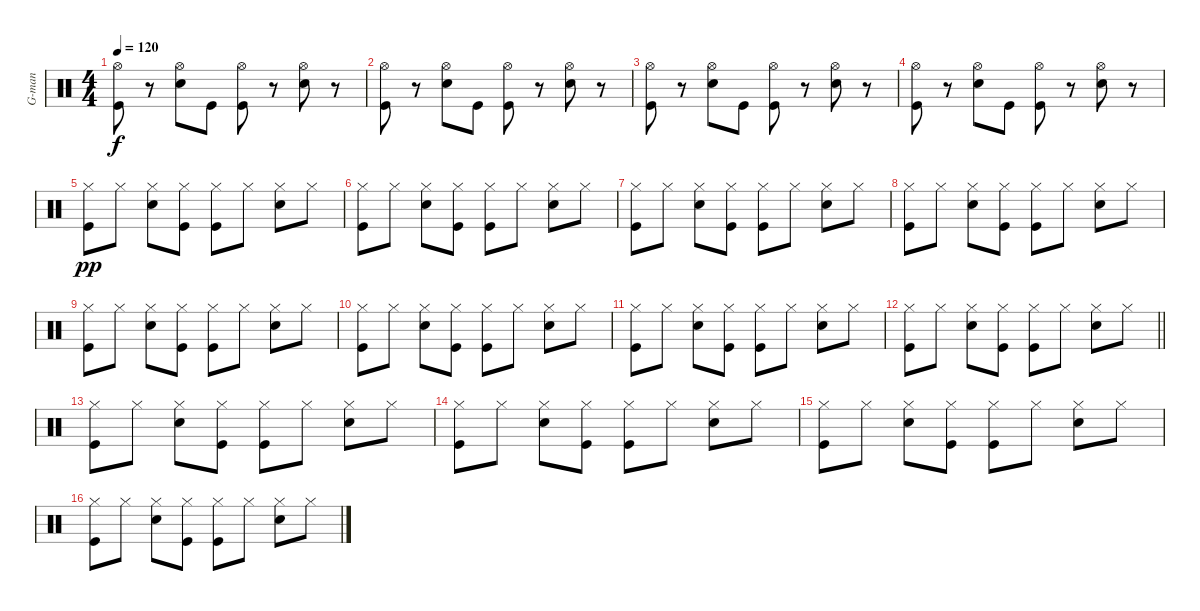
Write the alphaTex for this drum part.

\track ("G-man" "G-man") {instrument percussion}
\staff {score}
\articulation defaults
\ts (4 4)
\tempo 120
\clef neutral
\ks c
("Hi-Hat (open)" "Kick (hit)").8{dy f} r.8 ("Hi-Hat (open)" "Snare (hit) 2").8 "Kick (hit)".8 ("Hi-Hat (open)" "Kick (hit)").8 r.8 ("Hi-Hat (open)" "Snare (hit) 2").8 r.8 |
("Hi-Hat (open)" "Kick (hit)").8 r.8 ("Hi-Hat (open)" "Snare (hit) 2").8 "Kick (hit)".8 ("Hi-Hat (open)" "Kick (hit)").8 r.8 ("Hi-Hat (open)" "Snare (hit) 2").8 r.8 |
("Hi-Hat (open)" "Kick (hit)").8 r.8 ("Hi-Hat (open)" "Snare (hit) 2").8 "Kick (hit)".8 ("Hi-Hat (open)" "Kick (hit)").8 r.8 ("Hi-Hat (open)" "Snare (hit) 2").8 r.8 |
("Hi-Hat (open)" "Kick (hit)").8 r.8 ("Hi-Hat (open)" "Snare (hit) 2").8 "Kick (hit)".8 ("Hi-Hat (open)" "Kick (hit)").8 r.8 ("Hi-Hat (open)" "Snare (hit) 2").8 r.8 |
("Hi-Hat (closed)" "Kick (hit)").8{dy pp} "Hi-Hat (closed)".8 ("Hi-Hat (closed)" "Snare (hit) 2").8 ("Hi-Hat (closed)" "Kick (hit)").8 ("Hi-Hat (closed)" "Kick (hit)").8 "Hi-Hat (closed)".8 ("Hi-Hat (closed)" "Snare (hit) 2").8 "Hi-Hat (closed)".8 |
("Hi-Hat (closed)" "Kick (hit)").8 "Hi-Hat (closed)".8 ("Hi-Hat (closed)" "Snare (hit) 2").8 ("Hi-Hat (closed)" "Kick (hit)").8 ("Hi-Hat (closed)" "Kick (hit)").8 "Hi-Hat (closed)".8 ("Hi-Hat (closed)" "Snare (hit) 2").8 "Hi-Hat (closed)".8 |
("Hi-Hat (closed)" "Kick (hit)").8 "Hi-Hat (closed)".8 ("Hi-Hat (closed)" "Snare (hit) 2").8 ("Hi-Hat (closed)" "Kick (hit)").8 ("Hi-Hat (closed)" "Kick (hit)").8 "Hi-Hat (closed)".8 ("Hi-Hat (closed)" "Snare (hit) 2").8 "Hi-Hat (closed)".8 |
("Hi-Hat (closed)" "Kick (hit)").8 "Hi-Hat (closed)".8 ("Hi-Hat (closed)" "Snare (hit) 2").8 ("Hi-Hat (closed)" "Kick (hit)").8 ("Hi-Hat (closed)" "Kick (hit)").8 "Hi-Hat (closed)".8 ("Hi-Hat (closed)" "Snare (hit) 2").8 "Hi-Hat (closed)".8 |
("Hi-Hat (closed)" "Kick (hit)").8 "Hi-Hat (closed)".8 ("Hi-Hat (closed)" "Snare (hit) 2").8 ("Hi-Hat (closed)" "Kick (hit)").8 ("Hi-Hat (closed)" "Kick (hit)").8 "Hi-Hat (closed)".8 ("Hi-Hat (closed)" "Snare (hit) 2").8 "Hi-Hat (closed)".8 |
("Hi-Hat (closed)" "Kick (hit)").8 "Hi-Hat (closed)".8 ("Hi-Hat (closed)" "Snare (hit) 2").8 ("Hi-Hat (closed)" "Kick (hit)").8 ("Hi-Hat (closed)" "Kick (hit)").8 "Hi-Hat (closed)".8 ("Hi-Hat (closed)" "Snare (hit) 2").8 "Hi-Hat (closed)".8 |
("Hi-Hat (closed)" "Kick (hit)").8 "Hi-Hat (closed)".8 ("Hi-Hat (closed)" "Snare (hit) 2").8 ("Hi-Hat (closed)" "Kick (hit)").8 ("Hi-Hat (closed)" "Kick (hit)").8 "Hi-Hat (closed)".8 ("Hi-Hat (closed)" "Snare (hit) 2").8 "Hi-Hat (closed)".8 |
\barLineRight lightlight
("Hi-Hat (closed)" "Kick (hit)").8 "Hi-Hat (closed)".8 ("Hi-Hat (closed)" "Snare (hit) 2").8 ("Hi-Hat (closed)" "Kick (hit)").8 ("Hi-Hat (closed)" "Kick (hit)").8 "Hi-Hat (closed)".8 ("Hi-Hat (closed)" "Snare (hit) 2").8 "Hi-Hat (closed)".8 |
("Hi-Hat (closed)" "Kick (hit)").8 "Hi-Hat (closed)".8 ("Hi-Hat (closed)" "Snare (hit) 2").8 ("Hi-Hat (closed)" "Kick (hit)").8 ("Hi-Hat (closed)" "Kick (hit)").8 "Hi-Hat (closed)".8 ("Hi-Hat (closed)" "Snare (hit) 2").8 "Hi-Hat (closed)".8 |
("Hi-Hat (closed)" "Kick (hit)").8 "Hi-Hat (closed)".8 ("Hi-Hat (closed)" "Snare (hit) 2").8 ("Hi-Hat (closed)" "Kick (hit)").8 ("Hi-Hat (closed)" "Kick (hit)").8 "Hi-Hat (closed)".8 ("Hi-Hat (closed)" "Snare (hit) 2").8 "Hi-Hat (closed)".8 |
("Hi-Hat (closed)" "Kick (hit)").8 "Hi-Hat (closed)".8 ("Hi-Hat (closed)" "Snare (hit) 2").8 ("Hi-Hat (closed)" "Kick (hit)").8 ("Hi-Hat (closed)" "Kick (hit)").8 "Hi-Hat (closed)".8 ("Hi-Hat (closed)" "Snare (hit) 2").8 "Hi-Hat (closed)".8 |
("Hi-Hat (closed)" "Kick (hit)").8 "Hi-Hat (closed)".8 ("Hi-Hat (closed)" "Snare (hit) 2").8 ("Hi-Hat (closed)" "Kick (hit)").8 ("Hi-Hat (closed)" "Kick (hit)").8 "Hi-Hat (closed)".8 ("Hi-Hat (closed)" "Snare (hit) 2").8 "Hi-Hat (closed)".8
